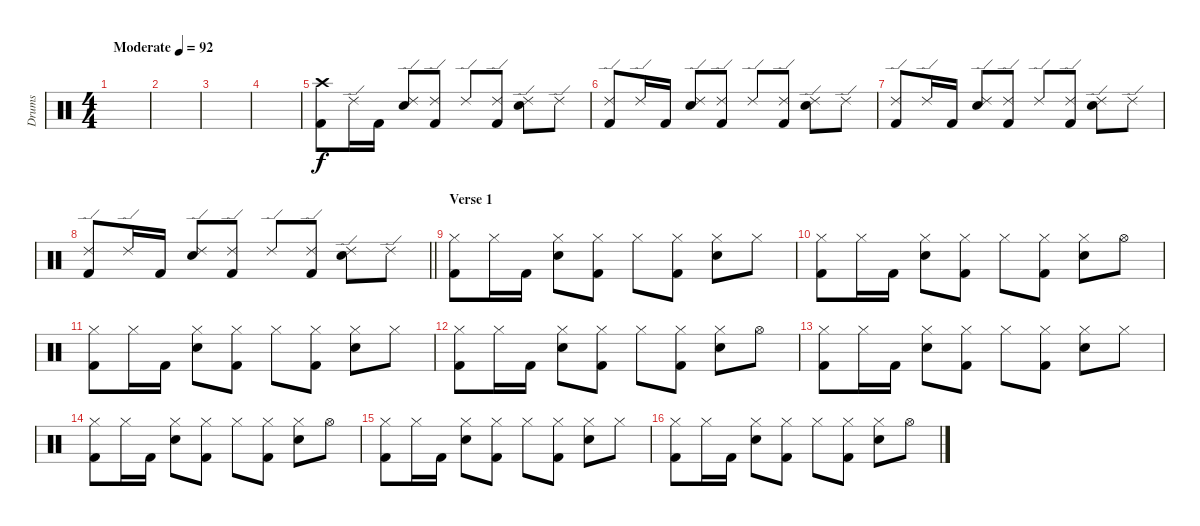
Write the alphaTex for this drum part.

\track ("Drums" "Drums") {instrument percussion}
\staff {score}
\articulation defaults
\ts (4 4)
\tempo (92 "Moderate")
\clef neutral
\ks c
|
|
|
|
("Crash high (hit)" "Kick (hit) 2").8 "Ride (edge) 2".16 "Kick (hit) 2".16 ("Ride (edge) 2" "Electric Snare (hit)").8 ("Ride (edge) 2" "Kick (hit) 2").8 "Ride (edge) 2".8 ("Ride (edge) 2" "Kick (hit) 2").8 ("Ride (edge) 2" "Electric Snare (hit)").8 "Ride (edge) 2".8 |
("Ride (edge) 2" "Kick (hit) 2").8 "Ride (edge) 2".16 "Kick (hit) 2".16 ("Ride (edge) 2" "Electric Snare (hit)").8 ("Ride (edge) 2" "Kick (hit) 2").8 "Ride (edge) 2".8 ("Ride (edge) 2" "Kick (hit) 2").8 ("Ride (edge) 2" "Electric Snare (hit)").8 "Ride (edge) 2".8 |
("Ride (edge) 2" "Kick (hit) 2").8 "Ride (edge) 2".16 "Kick (hit) 2".16 ("Ride (edge) 2" "Electric Snare (hit)").8 ("Ride (edge) 2" "Kick (hit) 2").8 "Ride (edge) 2".8 ("Ride (edge) 2" "Kick (hit) 2").8 ("Ride (edge) 2" "Electric Snare (hit)").8 "Ride (edge) 2".8 |
\barLineRight lightlight
("Ride (edge) 2" "Kick (hit) 2").8 "Ride (edge) 2".16 "Kick (hit) 2".16 ("Ride (edge) 2" "Electric Snare (hit)").8 ("Ride (edge) 2" "Kick (hit) 2").8 "Ride (edge) 2".8 ("Ride (edge) 2" "Kick (hit) 2").8 ("Ride (edge) 2" "Electric Snare (hit)").8 "Ride (edge) 2".8 |
\section ("" "Verse 1")
("Hi-Hat (closed)" "Kick (hit) 2").8 "Hi-Hat (closed)".16 "Kick (hit) 2".16 ("Hi-Hat (closed)" "Electric Snare (hit)").8 ("Hi-Hat (closed)" "Kick (hit) 2").8 "Hi-Hat (closed)".8 ("Hi-Hat (closed)" "Kick (hit) 2").8 ("Hi-Hat (closed)" "Electric Snare (hit)").8 "Hi-Hat (closed)".8 |
("Hi-Hat (closed)" "Kick (hit) 2").8 "Hi-Hat (closed)".16 "Kick (hit) 2".16 ("Hi-Hat (closed)" "Electric Snare (hit)").8 ("Hi-Hat (closed)" "Kick (hit) 2").8 "Hi-Hat (closed)".8 ("Hi-Hat (closed)" "Kick (hit) 2").8 ("Hi-Hat (closed)" "Electric Snare (hit)").8 "Hi-Hat (open)".8 |
("Hi-Hat (closed)" "Kick (hit) 2").8 "Hi-Hat (closed)".16 "Kick (hit) 2".16 ("Hi-Hat (closed)" "Electric Snare (hit)").8 ("Hi-Hat (closed)" "Kick (hit) 2").8 "Hi-Hat (closed)".8 ("Hi-Hat (closed)" "Kick (hit) 2").8 ("Hi-Hat (closed)" "Electric Snare (hit)").8 "Hi-Hat (closed)".8 |
("Hi-Hat (closed)" "Kick (hit) 2").8 "Hi-Hat (closed)".16 "Kick (hit) 2".16 ("Hi-Hat (closed)" "Electric Snare (hit)").8 ("Hi-Hat (closed)" "Kick (hit) 2").8 "Hi-Hat (closed)".8 ("Hi-Hat (closed)" "Kick (hit) 2").8 ("Hi-Hat (closed)" "Electric Snare (hit)").8 "Hi-Hat (open)".8 |
("Hi-Hat (closed)" "Kick (hit) 2").8 "Hi-Hat (closed)".16 "Kick (hit) 2".16 ("Hi-Hat (closed)" "Electric Snare (hit)").8 ("Hi-Hat (closed)" "Kick (hit) 2").8 "Hi-Hat (closed)".8 ("Hi-Hat (closed)" "Kick (hit) 2").8 ("Hi-Hat (closed)" "Electric Snare (hit)").8 "Hi-Hat (closed)".8 |
("Hi-Hat (closed)" "Kick (hit) 2").8 "Hi-Hat (closed)".16 "Kick (hit) 2".16 ("Hi-Hat (closed)" "Electric Snare (hit)").8 ("Hi-Hat (closed)" "Kick (hit) 2").8 "Hi-Hat (closed)".8 ("Hi-Hat (closed)" "Kick (hit) 2").8 ("Hi-Hat (closed)" "Electric Snare (hit)").8 "Hi-Hat (open)".8 |
("Hi-Hat (closed)" "Kick (hit) 2").8 "Hi-Hat (closed)".16 "Kick (hit) 2".16 ("Hi-Hat (closed)" "Electric Snare (hit)").8 ("Hi-Hat (closed)" "Kick (hit) 2").8 "Hi-Hat (closed)".8 ("Hi-Hat (closed)" "Kick (hit) 2").8 ("Hi-Hat (closed)" "Electric Snare (hit)").8 "Hi-Hat (closed)".8 |
("Hi-Hat (closed)" "Kick (hit) 2").8 "Hi-Hat (closed)".16 "Kick (hit) 2".16 ("Hi-Hat (closed)" "Electric Snare (hit)").8 ("Hi-Hat (closed)" "Kick (hit) 2").8 "Hi-Hat (closed)".8 ("Hi-Hat (closed)" "Kick (hit) 2").8 ("Hi-Hat (closed)" "Electric Snare (hit)").8 "Hi-Hat (open)".8
